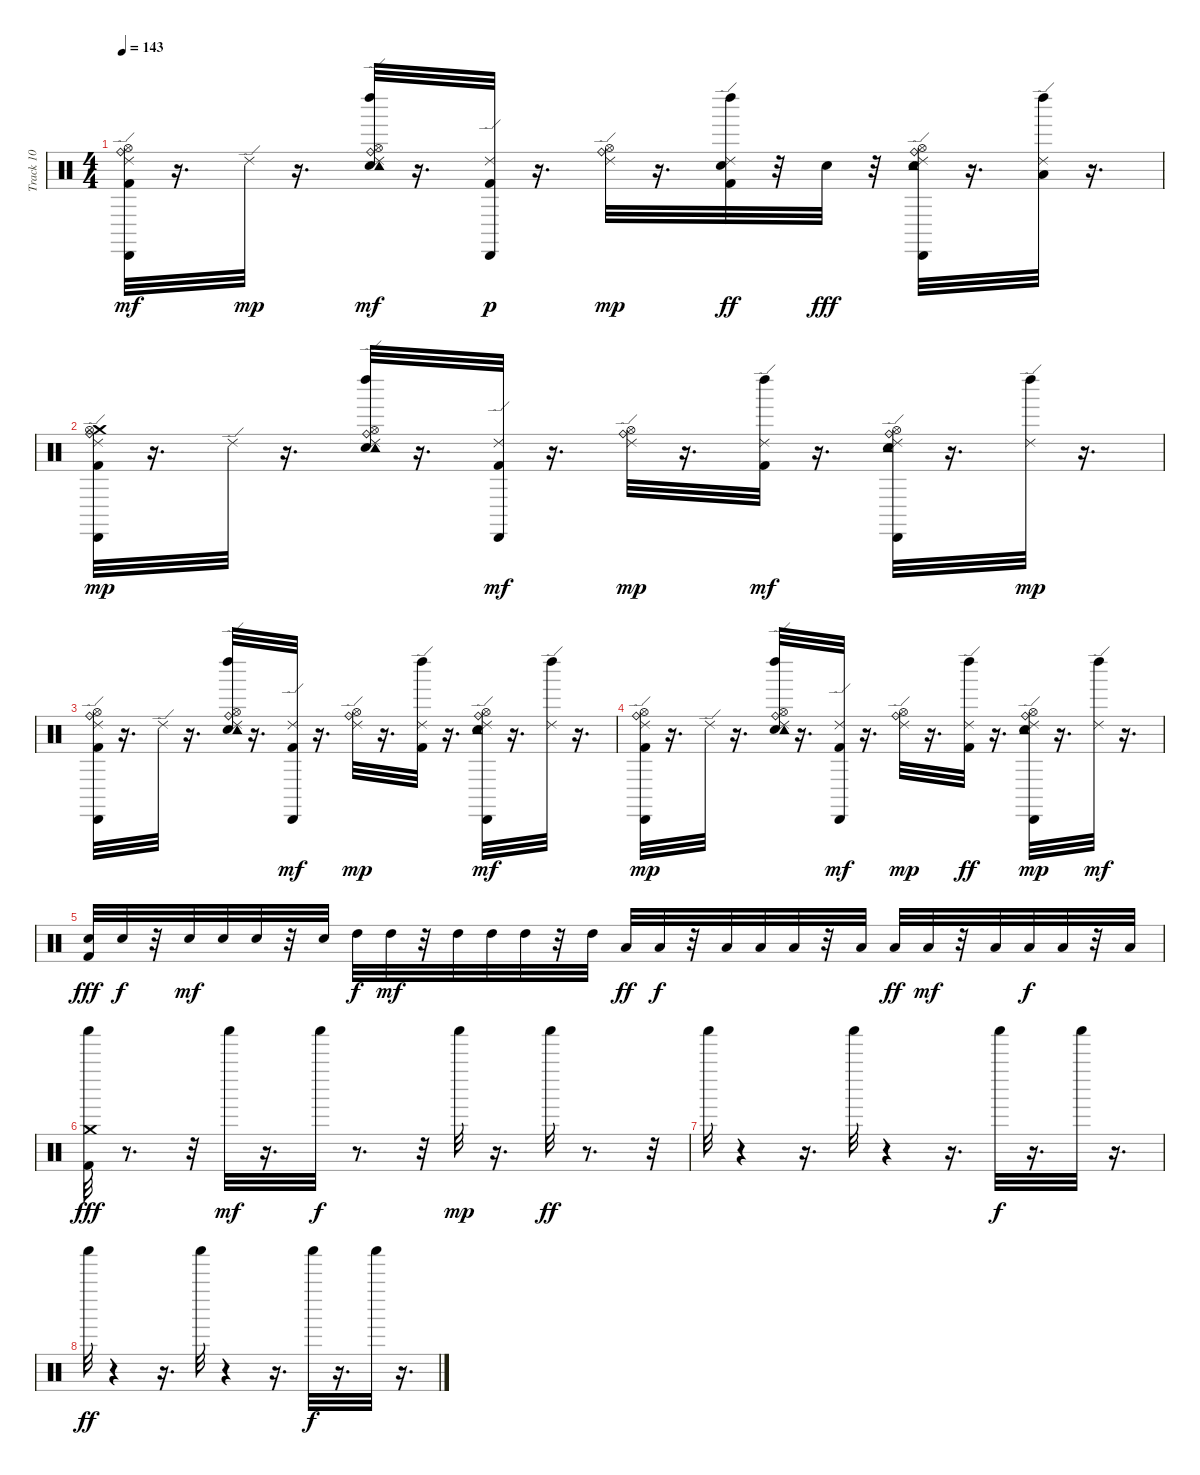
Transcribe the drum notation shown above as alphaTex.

\track ("Track 10" "Track 10") {instrument percussion}
\staff {score}
\articulation defaults
\ts (4 4)
\tempo 143
\clef neutral
\ks c
("Kick (hit) 2" "Ride (edge) 2" "Cabasa (hit)" "Hi-Hat (open)" "Ride (bell)").32{dy mf} r.16{d} "Ride (edge) 2".32{dy mp} r.16{d} ("Snare (hit) 2" "Ride (edge) 2" "Tambourine (hit)" "Left Maraca (hit)" "Hi-Hat (open)" "Ride (bell)").32{dy mf} r.16{d} ("Kick (hit) 2" "Ride (edge) 2" "Cabasa (hit)").32{dy p} r.16{d} ("Ride (edge) 2" "Hi-Hat (open)" "Ride (bell)").32{dy mp} r.16{d} ("Kick (hit) 2" "Ride (edge) 2" "Snare (hit) 2" "Left Maraca (hit)").32{dy ff} r.32 "Snare (hit) 2".32{dy fff} r.32 ("Ride (edge) 2" "Tambourine (hit)" "Cabasa (hit)" "Hi-Hat (open)" "Ride (bell)" "Snare (hit) 2").32 r.16{d} ("Ride (edge) 2" "Left Maraca (hit)" "Low Floor Tom (hit)").32 r.16{d} |
("Kick (hit) 2" "Ride (edge) 2" "Crash medium (hit)" "Cabasa (hit)" "Hi-Hat (open)" "Ride (bell)").32{dy mp} r.16{d} "Ride (edge) 2".32 r.16{d} ("Snare (hit) 2" "Ride (edge) 2" "Tambourine (hit)" "Left Maraca (hit)" "Hi-Hat (open)" "Ride (bell)").32 r.16{d} ("Kick (hit) 2" "Ride (edge) 2" "Cabasa (hit)").32{dy mf} r.16{d} ("Ride (edge) 2" "Hi-Hat (open)" "Ride (bell)").32{dy mp} r.16{d} ("Kick (hit) 2" "Ride (edge) 2" "Left Maraca (hit)").32{dy mf} r.16{d} ("Snare (hit) 2" "Ride (edge) 2" "Tambourine (hit)" "Cabasa (hit)" "Hi-Hat (open)" "Ride (bell)").32 r.16{d} ("Ride (edge) 2" "Left Maraca (hit)").32{dy mp} r.16{d} |
("Kick (hit) 2" "Ride (edge) 2" "Cabasa (hit)" "Hi-Hat (open)" "Ride (bell)").32 r.16{d} "Ride (edge) 2".32 r.16{d} ("Snare (hit) 2" "Ride (edge) 2" "Tambourine (hit)" "Left Maraca (hit)" "Hi-Hat (open)" "Ride (bell)").32 r.16{d} ("Kick (hit) 2" "Ride (edge) 2" "Cabasa (hit)").32{dy mf} r.16{d} ("Ride (edge) 2" "Hi-Hat (open)" "Ride (bell)").32{dy mp} r.16{d} ("Kick (hit) 2" "Ride (edge) 2" "Left Maraca (hit)").32 r.16{d} ("Snare (hit) 2" "Ride (edge) 2" "Tambourine (hit)" "Cabasa (hit)" "Hi-Hat (open)" "Ride (bell)").32{dy mf} r.16{d} ("Ride (edge) 2" "Left Maraca (hit)").32 r.16{d} |
("Kick (hit) 2" "Ride (edge) 2" "Cabasa (hit)" "Hi-Hat (open)" "Ride (bell)").32{dy mp} r.16{d} "Ride (edge) 2".32 r.16{d} ("Snare (hit) 2" "Ride (edge) 2" "Tambourine (hit)" "Left Maraca (hit)" "Hi-Hat (open)" "Ride (bell)").32 r.16{d} ("Kick (hit) 2" "Ride (edge) 2" "Cabasa (hit)").32{dy mf} r.16{d} ("Ride (edge) 2" "Hi-Hat (open)" "Ride (bell)").32{dy mp} r.16{d} ("Kick (hit) 2" "Ride (edge) 2" "Left Maraca (hit)").32{dy ff} r.16{d} ("Snare (hit) 2" "Ride (edge) 2" "Tambourine (hit)" "Cabasa (hit)" "Hi-Hat (open)" "Ride (bell)").32{dy mp} r.16{d} ("Ride (edge) 2" "Left Maraca (hit)").32{dy mf} r.16{d} |
("Snare (hit) 2" "Kick (hit) 2").32{dy fff} "Snare (hit) 2".32{dy f} r.32 "Snare (hit) 2".32{dy mf} "Snare (hit) 2".32 "Snare (hit) 2".32 r.32 "Snare (hit) 2".32 "High Tom (hit)".32{dy f} "High Tom (hit)".32{dy mf} r.32 "High Tom (hit)".32 "High Tom (hit)".32 "High Tom (hit)".32 r.32 "High Tom (hit)".32 "Low Tom (hit)".32{dy ff} "Low Tom (hit)".32{dy f} r.32 "Low Tom (hit)".32 "Low Tom (hit)".32 "Low Tom (hit)".32 r.32 "Low Tom (hit)".32 "Low Floor Tom (hit)".32{dy ff} "Low Floor Tom (hit)".32{dy mf} r.32 "Low Floor Tom (hit)".32 "Low Floor Tom (hit)".32{dy f} "Low Floor Tom (hit)".32 r.32 "Low Floor Tom (hit)".32 |
("Kick (hit) 2" "Crash medium (hit)" "Shaker (hit)").32{dy fff} r.8{d} r.32 "Shaker (hit)".32{dy mf} r.16{d} "Shaker (hit)".32{dy f} r.8{d} r.32 "Shaker (hit)".32{dy mp} r.16{d} "Shaker (hit)".32{dy ff} r.8{d} r.32 |
"Shaker (hit)".32 r.4 r.16{d} "Shaker (hit)".32 r.4 r.16{d} "Shaker (hit)".32{dy f} r.16{d} "Shaker (hit)".32 r.16{d} |
"Shaker (hit)".32{dy ff} r.4 r.16{d} "Shaker (hit)".32 r.4 r.16{d} "Shaker (hit)".32{dy f} r.16{d} "Shaker (hit)".32 r.16{d}
